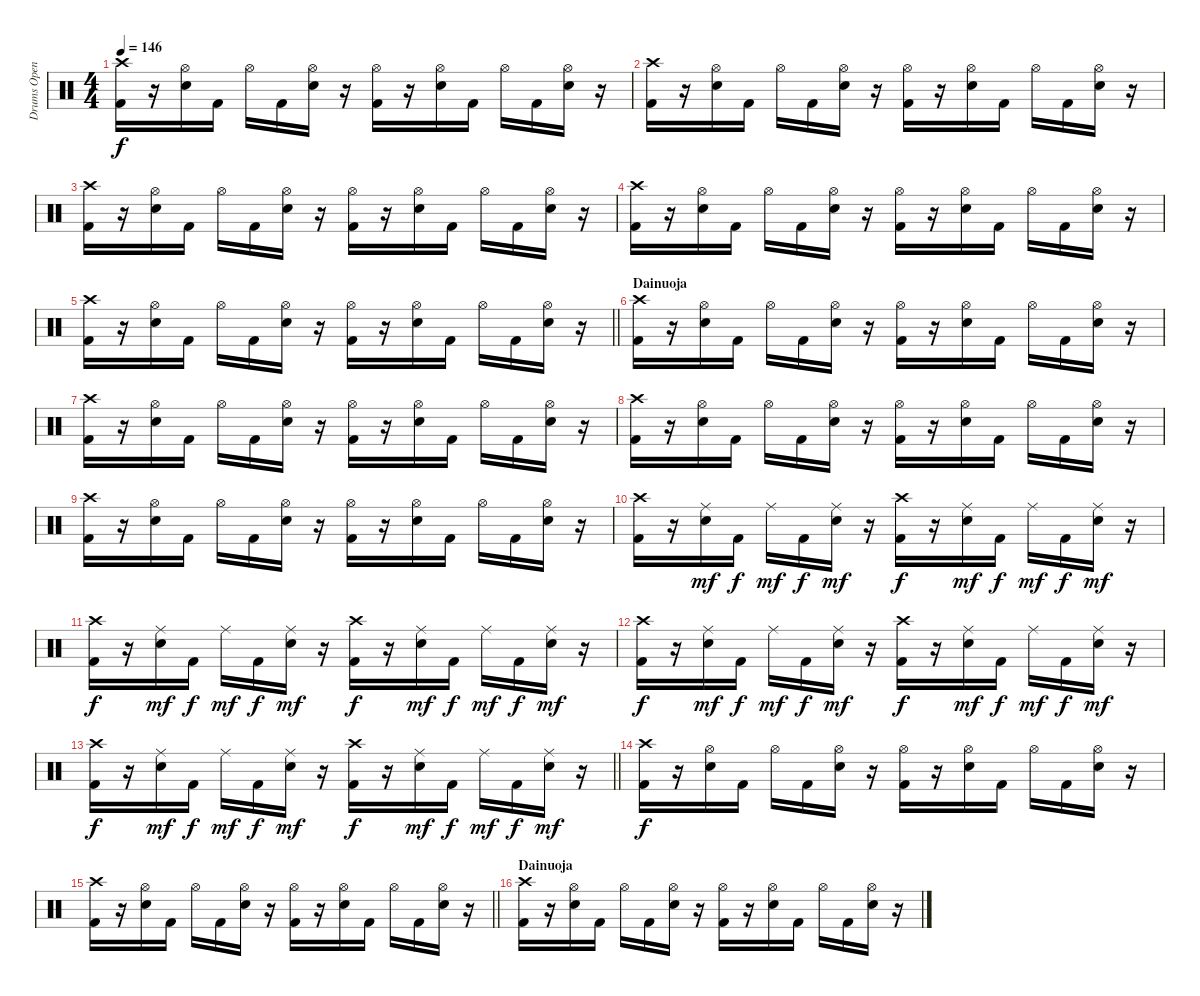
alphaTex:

\track ("Drums Open HH" "Drums Open") {instrument percussion}
\staff {score}
\articulation defaults
\ts (4 4)
\tempo 146
\clef neutral
\ks c
("Crash high (hit)" "Kick (hit) 2").16{dy f} r.16 ("Hi-Hat (open)" "Snare (hit) 2").16 "Kick (hit) 2".16 "Hi-Hat (open)".16 "Kick (hit) 2".16 ("Hi-Hat (open)" "Snare (hit) 2").16 r.16 ("Hi-Hat (open)" "Kick (hit) 2").16 r.16 ("Hi-Hat (open)" "Snare (hit) 2").16 "Kick (hit) 2".16 "Hi-Hat (open)".16 "Kick (hit) 2".16 ("Hi-Hat (open)" "Snare (hit) 2").16 r.16 |
("Crash high (hit)" "Kick (hit) 2").16 r.16 ("Hi-Hat (open)" "Snare (hit) 2").16 "Kick (hit) 2".16 "Hi-Hat (open)".16 "Kick (hit) 2".16 ("Hi-Hat (open)" "Snare (hit) 2").16 r.16 ("Hi-Hat (open)" "Kick (hit) 2").16 r.16 ("Hi-Hat (open)" "Snare (hit) 2").16 "Kick (hit) 2".16 "Hi-Hat (open)".16 "Kick (hit) 2".16 ("Hi-Hat (open)" "Snare (hit) 2").16 r.16 |
("Crash high (hit)" "Kick (hit) 2").16 r.16 ("Hi-Hat (open)" "Snare (hit) 2").16 "Kick (hit) 2".16 "Hi-Hat (open)".16 "Kick (hit) 2".16 ("Hi-Hat (open)" "Snare (hit) 2").16 r.16 ("Hi-Hat (open)" "Kick (hit) 2").16 r.16 ("Hi-Hat (open)" "Snare (hit) 2").16 "Kick (hit) 2".16 "Hi-Hat (open)".16 "Kick (hit) 2".16 ("Hi-Hat (open)" "Snare (hit) 2").16 r.16 |
("Crash high (hit)" "Kick (hit) 2").16 r.16 ("Hi-Hat (open)" "Snare (hit) 2").16 "Kick (hit) 2".16 "Hi-Hat (open)".16 "Kick (hit) 2".16 ("Hi-Hat (open)" "Snare (hit) 2").16 r.16 ("Hi-Hat (open)" "Kick (hit) 2").16 r.16 ("Hi-Hat (open)" "Snare (hit) 2").16 "Kick (hit) 2".16 "Hi-Hat (open)".16 "Kick (hit) 2".16 ("Hi-Hat (open)" "Snare (hit) 2").16 r.16 |
\barLineRight lightlight
("Crash high (hit)" "Kick (hit) 2").16 r.16 ("Hi-Hat (open)" "Snare (hit) 2").16 "Kick (hit) 2".16 "Hi-Hat (open)".16 "Kick (hit) 2".16 ("Hi-Hat (open)" "Snare (hit) 2").16 r.16 ("Hi-Hat (open)" "Kick (hit) 2").16 r.16 ("Hi-Hat (open)" "Snare (hit) 2").16 "Kick (hit) 2".16 "Hi-Hat (open)".16 "Kick (hit) 2".16 ("Hi-Hat (open)" "Snare (hit) 2").16 r.16 |
\section ("" "Dainuoja")
("Crash high (hit)" "Kick (hit) 2").16 r.16 ("Hi-Hat (open)" "Snare (hit) 2").16 "Kick (hit) 2".16 "Hi-Hat (open)".16 "Kick (hit) 2".16 ("Hi-Hat (open)" "Snare (hit) 2").16 r.16 ("Hi-Hat (open)" "Kick (hit) 2").16 r.16 ("Hi-Hat (open)" "Snare (hit) 2").16 "Kick (hit) 2".16 "Hi-Hat (open)".16 "Kick (hit) 2".16 ("Hi-Hat (open)" "Snare (hit) 2").16 r.16 |
("Crash high (hit)" "Kick (hit) 2").16 r.16 ("Hi-Hat (open)" "Snare (hit) 2").16 "Kick (hit) 2".16 "Hi-Hat (open)".16 "Kick (hit) 2".16 ("Hi-Hat (open)" "Snare (hit) 2").16 r.16 ("Hi-Hat (open)" "Kick (hit) 2").16 r.16 ("Hi-Hat (open)" "Snare (hit) 2").16 "Kick (hit) 2".16 "Hi-Hat (open)".16 "Kick (hit) 2".16 ("Hi-Hat (open)" "Snare (hit) 2").16 r.16 |
("Crash high (hit)" "Kick (hit) 2").16 r.16 ("Hi-Hat (open)" "Snare (hit) 2").16 "Kick (hit) 2".16 "Hi-Hat (open)".16 "Kick (hit) 2".16 ("Hi-Hat (open)" "Snare (hit) 2").16 r.16 ("Hi-Hat (open)" "Kick (hit) 2").16 r.16 ("Hi-Hat (open)" "Snare (hit) 2").16 "Kick (hit) 2".16 "Hi-Hat (open)".16 "Kick (hit) 2".16 ("Hi-Hat (open)" "Snare (hit) 2").16 r.16 |
("Crash high (hit)" "Kick (hit) 2").16 r.16 ("Hi-Hat (open)" "Snare (hit) 2").16 "Kick (hit) 2".16 "Hi-Hat (open)".16 "Kick (hit) 2".16 ("Hi-Hat (open)" "Snare (hit) 2").16 r.16 ("Hi-Hat (open)" "Kick (hit) 2").16 r.16 ("Hi-Hat (open)" "Snare (hit) 2").16 "Kick (hit) 2".16 "Hi-Hat (open)".16 "Kick (hit) 2".16 ("Hi-Hat (open)" "Snare (hit) 2").16 r.16 |
("Crash high (hit)" "Kick (hit) 2").16 r.16 ("Ride (middle)" "Snare (hit) 2").16{dy mf} "Kick (hit) 2".16{dy f} "Ride (middle)".16{dy mf} "Kick (hit) 2".16{dy f} ("Ride (middle)" "Snare (hit) 2").16{dy mf} r.16 ("Crash high (hit)" "Kick (hit) 2").16{dy f} r.16 ("Ride (middle)" "Snare (hit) 2").16{dy mf} "Kick (hit) 2".16{dy f} "Ride (middle)".16{dy mf} "Kick (hit) 2".16{dy f} ("Ride (middle)" "Snare (hit) 2").16{dy mf} r.16 |
("Crash high (hit)" "Kick (hit) 2").16{dy f} r.16 ("Ride (middle)" "Snare (hit) 2").16{dy mf} "Kick (hit) 2".16{dy f} "Ride (middle)".16{dy mf} "Kick (hit) 2".16{dy f} ("Ride (middle)" "Snare (hit) 2").16{dy mf} r.16 ("Crash high (hit)" "Kick (hit) 2").16{dy f} r.16 ("Ride (middle)" "Snare (hit) 2").16{dy mf} "Kick (hit) 2".16{dy f} "Ride (middle)".16{dy mf} "Kick (hit) 2".16{dy f} ("Ride (middle)" "Snare (hit) 2").16{dy mf} r.16 |
("Crash high (hit)" "Kick (hit) 2").16{dy f} r.16 ("Ride (middle)" "Snare (hit) 2").16{dy mf} "Kick (hit) 2".16{dy f} "Ride (middle)".16{dy mf} "Kick (hit) 2".16{dy f} ("Ride (middle)" "Snare (hit) 2").16{dy mf} r.16 ("Crash high (hit)" "Kick (hit) 2").16{dy f} r.16 ("Ride (middle)" "Snare (hit) 2").16{dy mf} "Kick (hit) 2".16{dy f} "Ride (middle)".16{dy mf} "Kick (hit) 2".16{dy f} ("Ride (middle)" "Snare (hit) 2").16{dy mf} r.16 |
\barLineRight lightlight
("Crash high (hit)" "Kick (hit) 2").16{dy f} r.16 ("Ride (middle)" "Snare (hit) 2").16{dy mf} "Kick (hit) 2".16{dy f} "Ride (middle)".16{dy mf} "Kick (hit) 2".16{dy f} ("Ride (middle)" "Snare (hit) 2").16{dy mf} r.16 ("Crash high (hit)" "Kick (hit) 2").16{dy f} r.16 ("Ride (middle)" "Snare (hit) 2").16{dy mf} "Kick (hit) 2".16{dy f} "Ride (middle)".16{dy mf} "Kick (hit) 2".16{dy f} ("Ride (middle)" "Snare (hit) 2").16{dy mf} r.16 |
("Crash high (hit)" "Kick (hit) 2").16{dy f} r.16 ("Hi-Hat (open)" "Snare (hit) 2").16 "Kick (hit) 2".16 "Hi-Hat (open)".16 "Kick (hit) 2".16 ("Hi-Hat (open)" "Snare (hit) 2").16 r.16 ("Hi-Hat (open)" "Kick (hit) 2").16 r.16 ("Hi-Hat (open)" "Snare (hit) 2").16 "Kick (hit) 2".16 "Hi-Hat (open)".16 "Kick (hit) 2".16 ("Hi-Hat (open)" "Snare (hit) 2").16 r.16 |
\barLineRight lightlight
("Crash high (hit)" "Kick (hit) 2").16 r.16 ("Hi-Hat (open)" "Snare (hit) 2").16 "Kick (hit) 2".16 "Hi-Hat (open)".16 "Kick (hit) 2".16 ("Hi-Hat (open)" "Snare (hit) 2").16 r.16 ("Hi-Hat (open)" "Kick (hit) 2").16 r.16 ("Hi-Hat (open)" "Snare (hit) 2").16 "Kick (hit) 2".16 "Hi-Hat (open)".16 "Kick (hit) 2".16 ("Hi-Hat (open)" "Snare (hit) 2").16 r.16 |
\section ("" "Dainuoja")
("Crash high (hit)" "Kick (hit) 2").16 r.16 ("Hi-Hat (open)" "Snare (hit) 2").16 "Kick (hit) 2".16 "Hi-Hat (open)".16 "Kick (hit) 2".16 ("Hi-Hat (open)" "Snare (hit) 2").16 r.16 ("Hi-Hat (open)" "Kick (hit) 2").16 r.16 ("Hi-Hat (open)" "Snare (hit) 2").16 "Kick (hit) 2".16 "Hi-Hat (open)".16 "Kick (hit) 2".16 ("Hi-Hat (open)" "Snare (hit) 2").16 r.16
